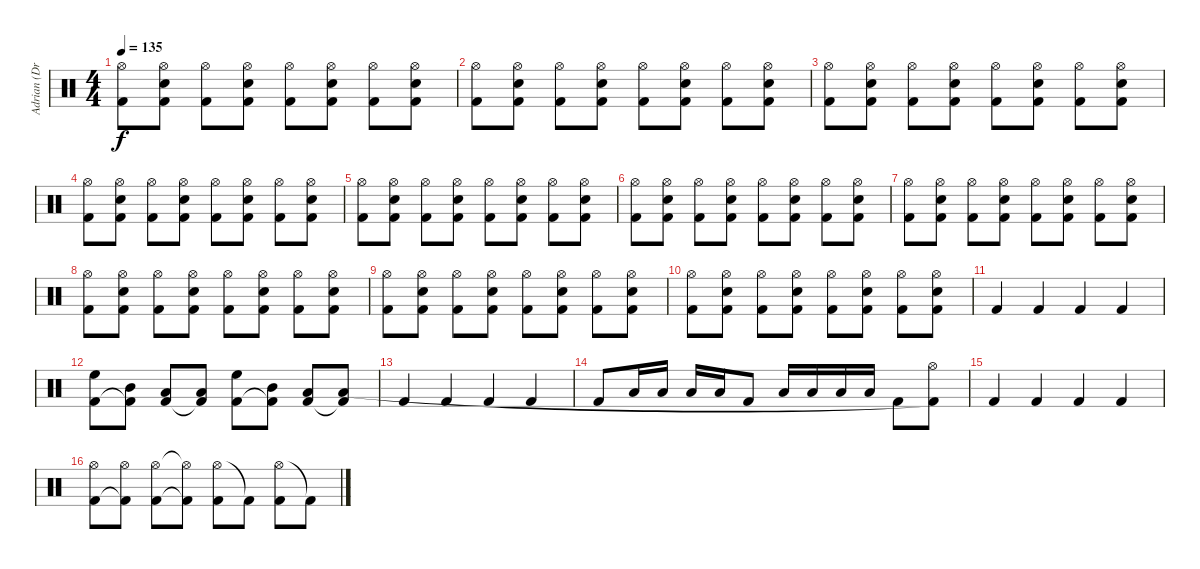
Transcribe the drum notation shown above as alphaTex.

\track ("Adrian (Drums)" "Adrian (Dr") {instrument percussion}
\staff {score}
\articulation defaults
\ts (4 4)
\tempo 135
\clef neutral
\ks c
("Kick (hit) 2" "Hi-Hat (open)").8{dy f} ("Kick (hit) 2" "Hi-Hat (open)" "Snare (hit) 2").8 ("Kick (hit) 2" "Hi-Hat (open)").8 ("Kick (hit) 2" "Hi-Hat (open)" "Snare (hit) 2").8 ("Kick (hit) 2" "Hi-Hat (open)").8 ("Kick (hit) 2" "Hi-Hat (open)" "Snare (hit) 2").8 ("Kick (hit) 2" "Hi-Hat (open)").8 ("Kick (hit) 2" "Hi-Hat (open)" "Snare (hit) 2").8 |
("Kick (hit) 2" "Hi-Hat (open)").8 ("Kick (hit) 2" "Hi-Hat (open)" "Snare (hit) 2").8 ("Kick (hit) 2" "Hi-Hat (open)").8 ("Kick (hit) 2" "Hi-Hat (open)" "Snare (hit) 2").8 ("Kick (hit) 2" "Hi-Hat (open)").8 ("Kick (hit) 2" "Hi-Hat (open)" "Snare (hit) 2").8 ("Kick (hit) 2" "Hi-Hat (open)").8 ("Kick (hit) 2" "Hi-Hat (open)" "Snare (hit) 2").8 |
("Kick (hit) 2" "Hi-Hat (open)").8 ("Kick (hit) 2" "Hi-Hat (open)" "Snare (hit) 2").8 ("Kick (hit) 2" "Hi-Hat (open)").8 ("Kick (hit) 2" "Hi-Hat (open)" "Snare (hit) 2").8 ("Kick (hit) 2" "Hi-Hat (open)").8 ("Kick (hit) 2" "Hi-Hat (open)" "Snare (hit) 2").8 ("Kick (hit) 2" "Hi-Hat (open)").8 ("Kick (hit) 2" "Hi-Hat (open)" "Snare (hit) 2").8 |
("Kick (hit) 2" "Hi-Hat (open)").8 ("Kick (hit) 2" "Hi-Hat (open)" "Snare (hit) 2").8 ("Kick (hit) 2" "Hi-Hat (open)").8 ("Kick (hit) 2" "Hi-Hat (open)" "Snare (hit) 2").8 ("Kick (hit) 2" "Hi-Hat (open)").8 ("Kick (hit) 2" "Hi-Hat (open)" "Snare (hit) 2").8 ("Kick (hit) 2" "Hi-Hat (open)").8 ("Kick (hit) 2" "Hi-Hat (open)" "Snare (hit) 2").8 |
("Kick (hit) 2" "Hi-Hat (open)").8 ("Kick (hit) 2" "Hi-Hat (open)" "Snare (hit) 2").8 ("Kick (hit) 2" "Hi-Hat (open)").8 ("Kick (hit) 2" "Hi-Hat (open)" "Snare (hit) 2").8 ("Kick (hit) 2" "Hi-Hat (open)").8 ("Kick (hit) 2" "Hi-Hat (open)" "Snare (hit) 2").8 ("Kick (hit) 2" "Hi-Hat (open)").8 ("Kick (hit) 2" "Hi-Hat (open)" "Snare (hit) 2").8 |
("Kick (hit) 2" "Hi-Hat (open)").8 ("Kick (hit) 2" "Hi-Hat (open)" "Snare (hit) 2").8 ("Kick (hit) 2" "Hi-Hat (open)").8 ("Kick (hit) 2" "Hi-Hat (open)" "Snare (hit) 2").8 ("Kick (hit) 2" "Hi-Hat (open)").8 ("Kick (hit) 2" "Hi-Hat (open)" "Snare (hit) 2").8 ("Kick (hit) 2" "Hi-Hat (open)").8 ("Kick (hit) 2" "Hi-Hat (open)" "Snare (hit) 2").8 |
("Kick (hit) 2" "Hi-Hat (open)").8 ("Kick (hit) 2" "Hi-Hat (open)" "Snare (hit) 2").8 ("Kick (hit) 2" "Hi-Hat (open)").8 ("Kick (hit) 2" "Hi-Hat (open)" "Snare (hit) 2").8 ("Kick (hit) 2" "Hi-Hat (open)").8 ("Kick (hit) 2" "Hi-Hat (open)" "Snare (hit) 2").8 ("Kick (hit) 2" "Hi-Hat (open)").8 ("Kick (hit) 2" "Hi-Hat (open)" "Snare (hit) 2").8 |
("Kick (hit) 2" "Hi-Hat (open)").8 ("Kick (hit) 2" "Hi-Hat (open)" "Snare (hit) 2").8 ("Kick (hit) 2" "Hi-Hat (open)").8 ("Kick (hit) 2" "Hi-Hat (open)" "Snare (hit) 2").8 ("Kick (hit) 2" "Hi-Hat (open)").8 ("Kick (hit) 2" "Hi-Hat (open)" "Snare (hit) 2").8 ("Kick (hit) 2" "Hi-Hat (open)").8 ("Kick (hit) 2" "Hi-Hat (open)" "Snare (hit) 2").8 |
("Kick (hit) 2" "Hi-Hat (open)").8 ("Kick (hit) 2" "Hi-Hat (open)" "Snare (hit) 2").8 ("Kick (hit) 2" "Hi-Hat (open)").8 ("Kick (hit) 2" "Hi-Hat (open)" "Snare (hit) 2").8 ("Kick (hit) 2" "Hi-Hat (open)").8 ("Kick (hit) 2" "Hi-Hat (open)" "Snare (hit) 2").8 ("Kick (hit) 2" "Hi-Hat (open)").8 ("Kick (hit) 2" "Hi-Hat (open)" "Snare (hit) 2").8 |
("Kick (hit) 2" "Hi-Hat (open)").8 ("Kick (hit) 2" "Hi-Hat (open)" "Snare (hit) 2").8 ("Kick (hit) 2" "Hi-Hat (open)").8 ("Kick (hit) 2" "Hi-Hat (open)" "Snare (hit) 2").8 ("Kick (hit) 2" "Hi-Hat (open)").8 ("Kick (hit) 2" "Hi-Hat (open)" "Snare (hit) 2").8 ("Kick (hit) 2" "Hi-Hat (open)").8 ("Kick (hit) 2" "Hi-Hat (open)" "Snare (hit) 2").8 |
"Kick (hit) 2".4 "Kick (hit) 2".4 "Kick (hit) 2".4 "Kick (hit) 2".4 |
("High Floor Tom (hit)" "Kick (hit) 2").8 ("Mid Tom (hit)" "Kick (hit) 2"{t}).8 ("Kick (hit) 2" "Low Tom (hit)").8 ("Kick (hit) 2"{t} "Low Tom (hit)").8 ("High Floor Tom (hit)" "Kick (hit) 2").8 ("Mid Tom (hit)" "Kick (hit) 2"{t}).8 ("Kick (hit) 2" "Low Tom (hit)").8 ("Kick (hit) 2"{t} "Low Tom (hit)").8 |
"Kick (hit) 2".4 "Kick (hit) 2".4 "Kick (hit) 2".4 "Kick (hit) 2".4 |
"Kick (hit) 2".8 "Low Tom (hit)".16 "Low Tom (hit)".16 "Low Tom (hit)".16 "Low Tom (hit)".16 "Kick (hit) 2".8 "Low Tom (hit)".16 "Low Tom (hit)".16 "Low Tom (hit)".16 "Low Tom (hit)".16 "Kick (hit) 2".8 ("Hi-Hat (open)" "Kick (hit) 2"{t}).8 |
"Kick (hit) 2".4 "Kick (hit) 2".4 "Kick (hit) 2".4 "Kick (hit) 2".4 |
("Hi-Hat (open)" "Kick (hit) 2").8 ("Hi-Hat (open)" "Kick (hit) 2"{t}).8 ("Hi-Hat (open)" "Kick (hit) 2").8 ("Hi-Hat (open)"{t} "Kick (hit) 2"{t}).8 ("Hi-Hat (open)" "Kick (hit) 2").8 "Kick (hit) 2"{t}.8 ("Hi-Hat (open)" "Kick (hit) 2").8 "Kick (hit) 2"{t}.8
